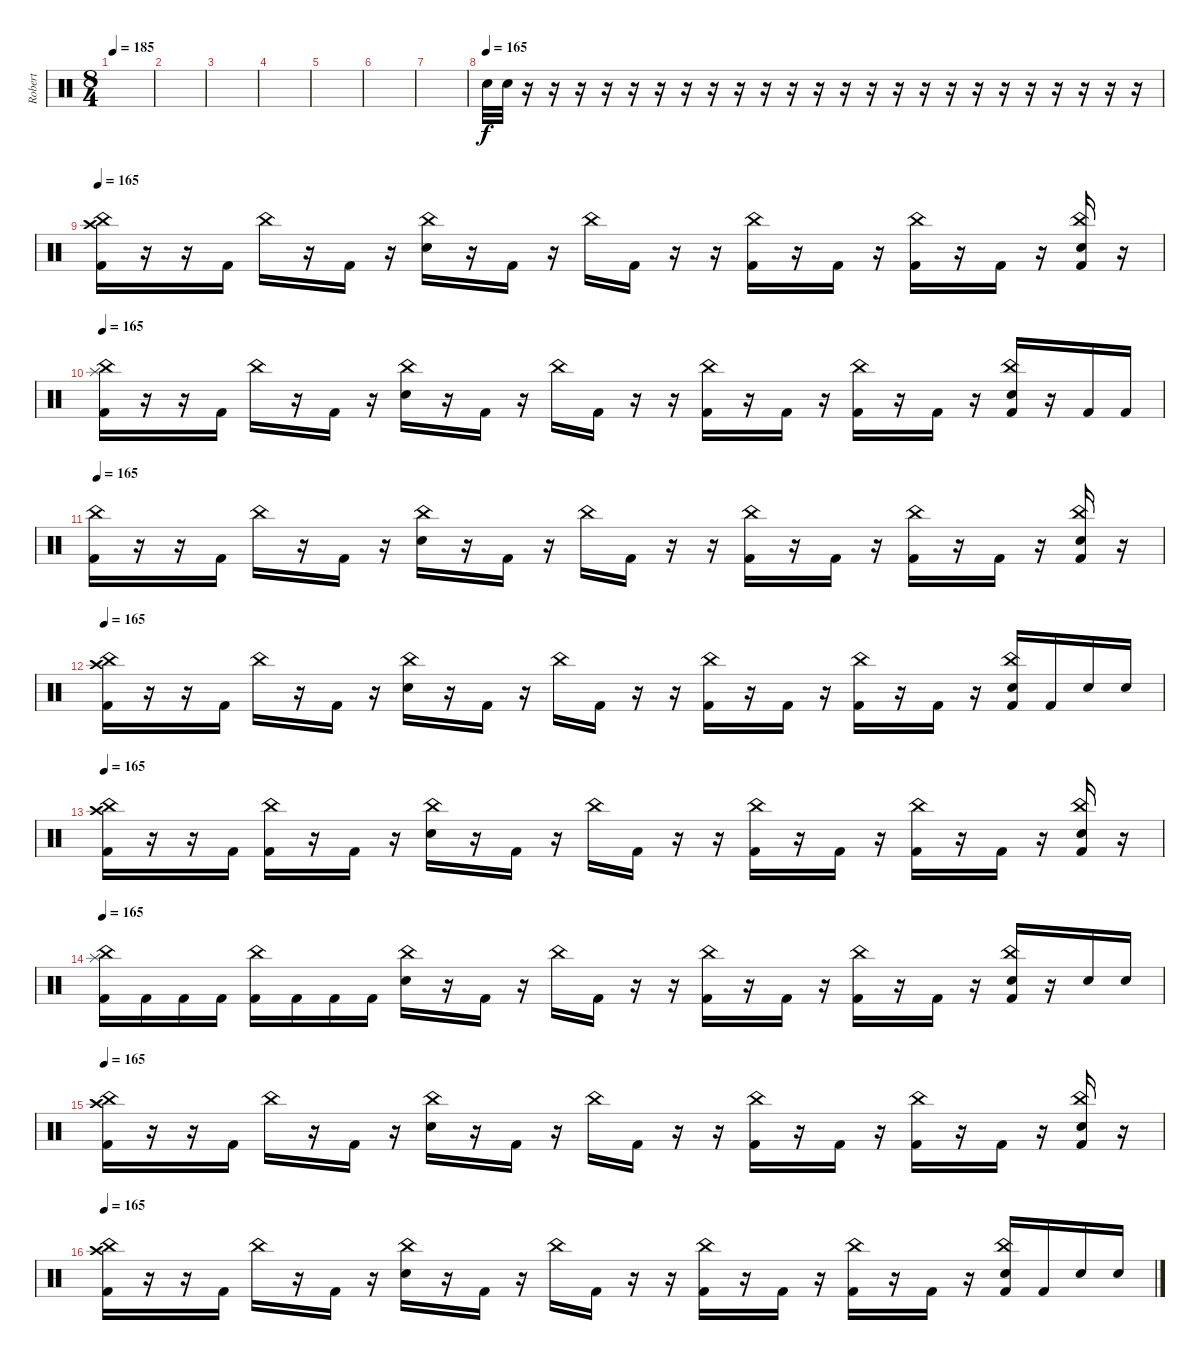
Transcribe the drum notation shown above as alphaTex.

\track ("Robert" "Robert") {instrument percussion}
\staff {score}
\articulation defaults
\ts (8 4)
\tempo 185
\clef neutral
\ks c
|
|
|
|
|
|
|
\tempo (165)
"Electric Snare (hit)".32 "Electric Snare (hit)".32 r.16 r.16 r.16 r.16 r.16 r.16 r.16 r.16 r.16 r.16 r.16 r.16 r.16 r.16 r.16 r.16 r.16 r.16 r.16 r.16 r.16 r.16 r.16 r.16 |
\tempo 165
("Crash high (hit)" "China (hit)" "Kick (hit) 2").16 r.16 r.16 "Kick (hit) 2".16 "China (hit)".16 r.16 "Kick (hit) 2".16 r.16 ("China (hit)" "Electric Snare (hit)").16 r.16 "Kick (hit) 2".16 r.16 "China (hit)".16 "Kick (hit) 2".16 r.16 r.16 ("China (hit)" "Kick (hit) 2").16 r.16 "Kick (hit) 2".16 r.16 ("China (hit)" "Kick (hit) 2").16 r.16 "Kick (hit) 2".16 r.16 ("China (hit)" "Electric Snare (hit)" "Kick (hit) 2").16 r.16 |
\tempo 165
("China (hit)" "Splash (hit)" "Kick (hit) 2").16 r.16 r.16 "Kick (hit) 2".16 "China (hit)".16 r.16 "Kick (hit) 2".16 r.16 ("China (hit)" "Electric Snare (hit)").16 r.16 "Kick (hit) 2".16 r.16 "China (hit)".16 "Kick (hit) 2".16 r.16 r.16 ("China (hit)" "Kick (hit) 2").16 r.16 "Kick (hit) 2".16 r.16 ("China (hit)" "Kick (hit) 2").16 r.16 "Kick (hit) 2".16 r.16 ("China (hit)" "Electric Snare (hit)" "Kick (hit) 2").16 r.16 "Kick (hit) 2".16 "Kick (hit) 2".16 |
\tempo 165
("China (hit)" "Kick (hit) 2").16 r.16 r.16 "Kick (hit) 2".16 "China (hit)".16 r.16 "Kick (hit) 2".16 r.16 ("China (hit)" "Electric Snare (hit)").16 r.16 "Kick (hit) 2".16 r.16 "China (hit)".16 "Kick (hit) 2".16 r.16 r.16 ("China (hit)" "Kick (hit) 2").16 r.16 "Kick (hit) 2".16 r.16 ("China (hit)" "Kick (hit) 2").16 r.16 "Kick (hit) 2".16 r.16 ("China (hit)" "Electric Snare (hit)" "Kick (hit) 2").16 r.16 |
\tempo 165
("Crash high (hit)" "China (hit)" "Kick (hit) 2").16 r.16 r.16 "Kick (hit) 2".16 "China (hit)".16 r.16 "Kick (hit) 2".16 r.16 ("China (hit)" "Electric Snare (hit)").16 r.16 "Kick (hit) 2".16 r.16 "China (hit)".16 "Kick (hit) 2".16 r.16 r.16 ("China (hit)" "Kick (hit) 2").16 r.16 "Kick (hit) 2".16 r.16 ("China (hit)" "Kick (hit) 2").16 r.16 "Kick (hit) 2".16 r.16 ("China (hit)" "Electric Snare (hit)" "Kick (hit) 2").16 "Kick (hit) 2".16 "Electric Snare (hit)".16 "Electric Snare (hit)".16 |
\tempo 165
("Crash high (hit)" "China (hit)" "Kick (hit) 2").16 r.16 r.16 "Kick (hit) 2".16 ("China (hit)" "Kick (hit) 2").16 r.16 "Kick (hit) 2".16 r.16 ("China (hit)" "Electric Snare (hit)").16 r.16 "Kick (hit) 2".16 r.16 "China (hit)".16 "Kick (hit) 2".16 r.16 r.16 ("China (hit)" "Kick (hit) 2").16 r.16 "Kick (hit) 2".16 r.16 ("China (hit)" "Kick (hit) 2").16 r.16 "Kick (hit) 2".16 r.16 ("China (hit)" "Electric Snare (hit)" "Kick (hit) 2").16 r.16 |
\tempo 165
("China (hit)" "Splash (hit)" "Kick (hit) 2").16 "Kick (hit) 2".16 "Kick (hit) 2".16 "Kick (hit) 2".16 ("China (hit)" "Kick (hit) 2").16 "Kick (hit) 2".16 "Kick (hit) 2".16 "Kick (hit) 2".16 ("China (hit)" "Electric Snare (hit)").16 r.16 "Kick (hit) 2".16 r.16 "China (hit)".16 "Kick (hit) 2".16 r.16 r.16 ("China (hit)" "Kick (hit) 2").16 r.16 "Kick (hit) 2".16 r.16 ("China (hit)" "Kick (hit) 2").16 r.16 "Kick (hit) 2".16 r.16 ("China (hit)" "Electric Snare (hit)" "Kick (hit) 2").16 r.16 "Electric Snare (hit)".16 "Electric Snare (hit)".16 |
\tempo 165
("Crash high (hit)" "China (hit)" "Kick (hit) 2").16 r.16 r.16 "Kick (hit) 2".16 "China (hit)".16 r.16 "Kick (hit) 2".16 r.16 ("China (hit)" "Electric Snare (hit)").16 r.16 "Kick (hit) 2".16 r.16 "China (hit)".16 "Kick (hit) 2".16 r.16 r.16 ("China (hit)" "Kick (hit) 2").16 r.16 "Kick (hit) 2".16 r.16 ("China (hit)" "Kick (hit) 2").16 r.16 "Kick (hit) 2".16 r.16 ("China (hit)" "Electric Snare (hit)" "Kick (hit) 2").16 r.16 |
\tempo 165
("Crash high (hit)" "China (hit)" "Kick (hit) 2").16 r.16 r.16 "Kick (hit) 2".16 "China (hit)".16 r.16 "Kick (hit) 2".16 r.16 ("China (hit)" "Electric Snare (hit)").16 r.16 "Kick (hit) 2".16 r.16 "China (hit)".16 "Kick (hit) 2".16 r.16 r.16 ("China (hit)" "Kick (hit) 2").16 r.16 "Kick (hit) 2".16 r.16 ("China (hit)" "Kick (hit) 2").16 r.16 "Kick (hit) 2".16 r.16 ("China (hit)" "Electric Snare (hit)" "Kick (hit) 2").16 "Kick (hit) 2".16 "Electric Snare (hit)".16 "Electric Snare (hit)".16
